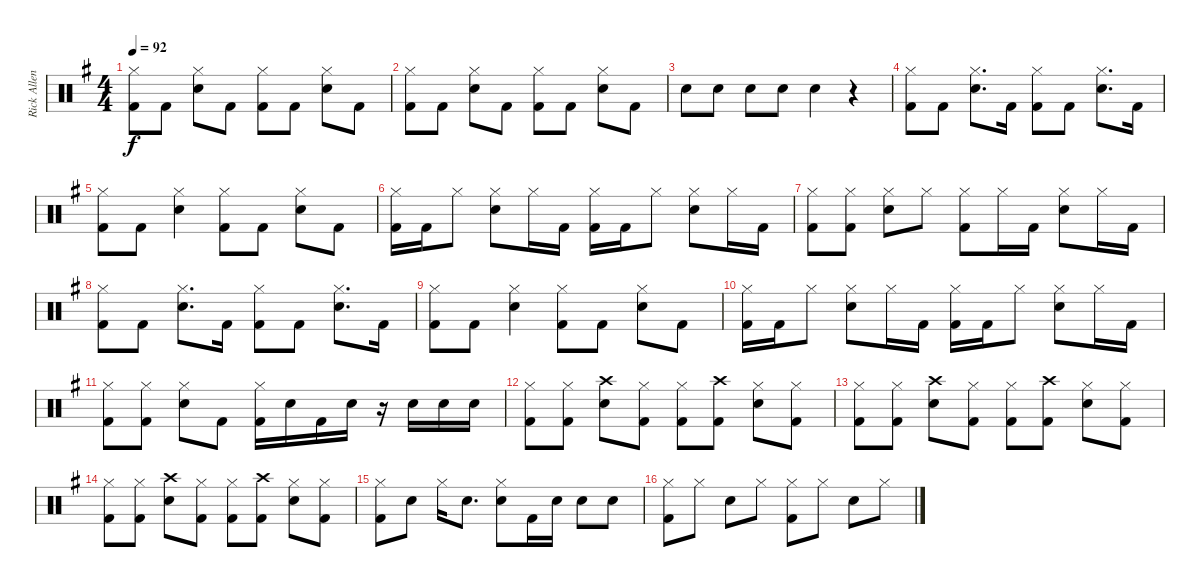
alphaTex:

\track ("Rick Allen" "Rick Allen") {instrument percussion}
\staff {score}
\articulation defaults
\ts (4 4)
\tempo 92
\clef neutral
\ks eminor
("Hi-Hat (closed)" "Kick (hit) 2").8{dy f} "Kick (hit) 2".8 ("Hi-Hat (closed)" "Electric Snare (hit)").8 "Kick (hit) 2".8 ("Hi-Hat (closed)" "Kick (hit) 2").8 "Kick (hit) 2".8 ("Hi-Hat (closed)" "Electric Snare (hit)").8 "Kick (hit) 2".8 |
("Hi-Hat (closed)" "Kick (hit) 2").8 "Kick (hit) 2".8 ("Hi-Hat (closed)" "Electric Snare (hit)").8 "Kick (hit) 2".8 ("Hi-Hat (closed)" "Kick (hit) 2").8 "Kick (hit) 2".8 ("Hi-Hat (closed)" "Electric Snare (hit)").8 "Kick (hit) 2".8 |
"Electric Snare (hit)".8 "Electric Snare (hit)".8 "Electric Snare (hit)".8 "Electric Snare (hit)".8 "Electric Snare (hit)".4 r.4 |
("Hi-Hat (closed)" "Kick (hit) 2").8 "Kick (hit) 2".8 ("Hi-Hat (closed)" "Electric Snare (hit)").8{d} "Kick (hit) 2".16 ("Hi-Hat (closed)" "Kick (hit) 2").8 "Kick (hit) 2".8 ("Hi-Hat (closed)" "Electric Snare (hit)").8{d} "Kick (hit) 2".16 |
("Hi-Hat (closed)" "Kick (hit) 2").8 "Kick (hit) 2".8 ("Hi-Hat (closed)" "Electric Snare (hit)").4 ("Hi-Hat (closed)" "Kick (hit) 2").8 "Kick (hit) 2".8 ("Hi-Hat (closed)" "Electric Snare (hit)").8 "Kick (hit) 2".8 |
("Hi-Hat (closed)" "Kick (hit) 2").16 "Kick (hit) 2".16 "Hi-Hat (closed)".8 ("Hi-Hat (closed)" "Electric Snare (hit)").8 "Hi-Hat (closed)".16 "Kick (hit) 2".16 ("Hi-Hat (closed)" "Kick (hit) 2").16 "Kick (hit) 2".16 "Hi-Hat (closed)".8 ("Hi-Hat (closed)" "Electric Snare (hit)").8 "Hi-Hat (closed)".16 "Kick (hit) 2".16 |
("Hi-Hat (closed)" "Kick (hit) 2").8 ("Hi-Hat (closed)" "Kick (hit) 2").8 ("Hi-Hat (closed)" "Electric Snare (hit)").8 "Hi-Hat (closed)".8 ("Hi-Hat (closed)" "Kick (hit) 2").8 "Hi-Hat (closed)".16 "Kick (hit) 2".16 ("Hi-Hat (closed)" "Electric Snare (hit)").8 "Hi-Hat (closed)".16 "Kick (hit) 2".16 |
("Hi-Hat (closed)" "Kick (hit) 2").8 "Kick (hit) 2".8 ("Hi-Hat (closed)" "Electric Snare (hit)").8{d} "Kick (hit) 2".16 ("Hi-Hat (closed)" "Kick (hit) 2").8 "Kick (hit) 2".8 ("Hi-Hat (closed)" "Electric Snare (hit)").8{d} "Kick (hit) 2".16 |
("Hi-Hat (closed)" "Kick (hit) 2").8 "Kick (hit) 2".8 ("Hi-Hat (closed)" "Electric Snare (hit)").4 ("Hi-Hat (closed)" "Kick (hit) 2").8 "Kick (hit) 2".8 ("Hi-Hat (closed)" "Electric Snare (hit)").8 "Kick (hit) 2".8 |
("Hi-Hat (closed)" "Kick (hit) 2").16 "Kick (hit) 2".16 "Hi-Hat (closed)".8 ("Hi-Hat (closed)" "Electric Snare (hit)").8 "Hi-Hat (closed)".16 "Kick (hit) 2".16 ("Hi-Hat (closed)" "Kick (hit) 2").16 "Kick (hit) 2".16 "Hi-Hat (closed)".8 ("Hi-Hat (closed)" "Electric Snare (hit)").8 "Hi-Hat (closed)".16 "Kick (hit) 2".16 |
("Hi-Hat (closed)" "Kick (hit) 2").8 ("Hi-Hat (closed)" "Kick (hit) 2").8 ("Hi-Hat (closed)" "Electric Snare (hit)").8 "Kick (hit) 2".8 ("Hi-Hat (closed)" "Kick (hit) 2").16 "Electric Snare (hit)".16 "Kick (hit) 2".16 "Electric Snare (hit)".16 r.16 "Electric Snare (hit)".16 "Electric Snare (hit)".16 "Electric Snare (hit)".16 |
("Hi-Hat (closed)" "Kick (hit) 2").8 ("Hi-Hat (closed)" "Kick (hit) 2").8 ("Crash high (hit)" "Electric Snare (hit)").8 ("Hi-Hat (closed)" "Kick (hit) 2").8 ("Hi-Hat (closed)" "Kick (hit) 2").8 ("Crash high (hit)" "Kick (hit) 2").8 ("Hi-Hat (closed)" "Electric Snare (hit)").8 ("Hi-Hat (closed)" "Kick (hit) 2").8 |
("Hi-Hat (closed)" "Kick (hit) 2").8 ("Hi-Hat (closed)" "Kick (hit) 2").8 ("Crash high (hit)" "Electric Snare (hit)").8 ("Hi-Hat (closed)" "Kick (hit) 2").8 ("Hi-Hat (closed)" "Kick (hit) 2").8 ("Crash high (hit)" "Kick (hit) 2").8 ("Hi-Hat (closed)" "Electric Snare (hit)").8 ("Hi-Hat (closed)" "Kick (hit) 2").8 |
("Hi-Hat (closed)" "Kick (hit) 2").8 ("Hi-Hat (closed)" "Kick (hit) 2").8 ("Crash high (hit)" "Electric Snare (hit)").8 ("Hi-Hat (closed)" "Kick (hit) 2").8 ("Hi-Hat (closed)" "Kick (hit) 2").8 ("Crash high (hit)" "Kick (hit) 2").8 ("Hi-Hat (closed)" "Electric Snare (hit)").8 ("Hi-Hat (closed)" "Kick (hit) 2").8 |
("Hi-Hat (closed)" "Kick (hit) 2").8 "Electric Snare (hit)".8 "Hi-Hat (closed)".16 "Electric Snare (hit)".8{d} ("Hi-Hat (closed)" "Electric Snare (hit)").8 "Kick (hit) 2".16 "Electric Snare (hit)".16 "Electric Snare (hit)".8 "Electric Snare (hit)".8 |
("Hi-Hat (closed)" "Kick (hit) 2").8 "Hi-Hat (closed)".8 "Electric Snare (hit)".8 "Hi-Hat (closed)".8 ("Hi-Hat (closed)" "Kick (hit) 2").8 "Hi-Hat (closed)".8 "Electric Snare (hit)".8 "Hi-Hat (closed)".8
